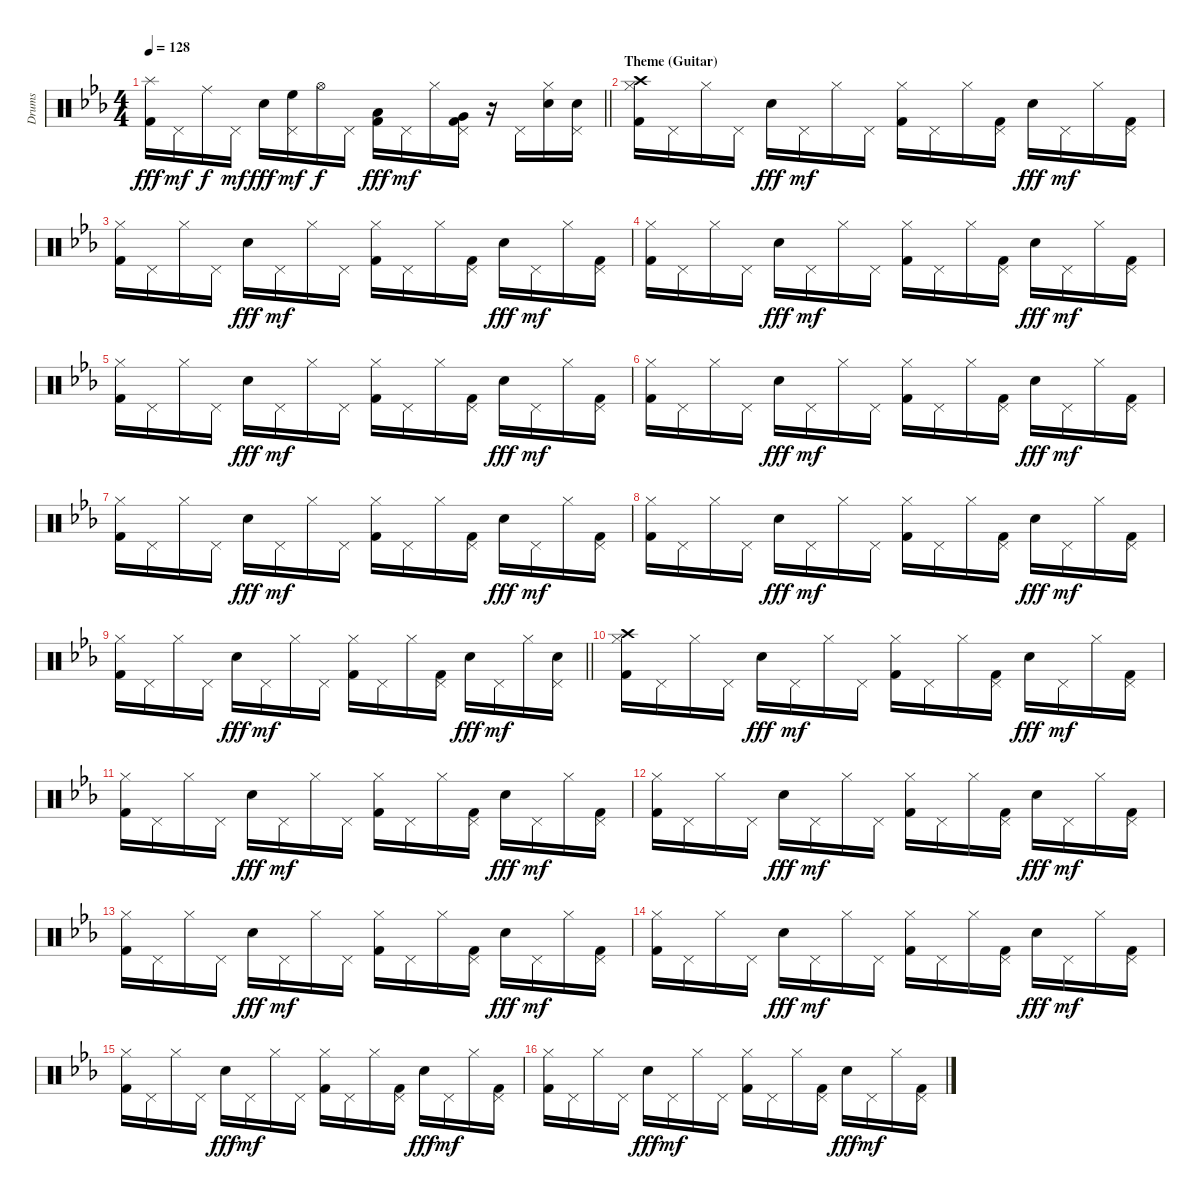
\track ("Drums" "Drums") {instrument percussion}
\staff {score}
\articulation defaults
\ts (4 4)
\tempo 128
\clef neutral
\barLineRight lightlight
\ks cminor
("Kick (hit) 2" "Splash (hit)").16{dy fff} "Pedal Hi-Hat (hit)".16{dy mf} "Ride (middle)".16{dy f} "Pedal Hi-Hat (hit)".16{dy mf} "Electric Snare (hit)".16{dy fff} ("High Floor Tom (hit)" "Pedal Hi-Hat (hit)").16{dy mf} "Hi-Hat (open)".16{dy f} "Pedal Hi-Hat (hit)".16 ("Low Tom (hit)" "Kick (hit) 2").16{dy fff} "Pedal Hi-Hat (hit)".16{dy mf} "Hi-Hat (closed)".16 ("Very Low Tom (hit)" "Kick (hit) 2" "Pedal Hi-Hat (hit)").16 r.16 "Pedal Hi-Hat (hit)".16 ("Electric Snare (hit)" "Hi-Hat (closed)").16 ("Electric Snare (hit)" "Pedal Hi-Hat (hit)").16 |
\section ("" "Theme (Guitar)")
("Crash high (hit)" "Kick (hit) 2" "Hi-Hat (closed)").16 "Pedal Hi-Hat (hit)".16 "Hi-Hat (closed)".16 "Pedal Hi-Hat (hit)".16 "Electric Snare (hit)".16{dy fff} "Pedal Hi-Hat (hit)".16{dy mf} "Hi-Hat (closed)".16 "Pedal Hi-Hat (hit)".16 ("Kick (hit) 2" "Hi-Hat (closed)").16 "Pedal Hi-Hat (hit)".16 "Hi-Hat (closed)".16 ("Kick (hit) 2" "Pedal Hi-Hat (hit)").16 "Electric Snare (hit)".16{dy fff} "Pedal Hi-Hat (hit)".16{dy mf} "Hi-Hat (closed)".16 ("Kick (hit) 2" "Pedal Hi-Hat (hit)").16 |
("Kick (hit) 2" "Hi-Hat (closed)").16 "Pedal Hi-Hat (hit)".16 "Hi-Hat (closed)".16 "Pedal Hi-Hat (hit)".16 "Electric Snare (hit)".16{dy fff} "Pedal Hi-Hat (hit)".16{dy mf} "Hi-Hat (closed)".16 "Pedal Hi-Hat (hit)".16 ("Kick (hit) 2" "Hi-Hat (closed)").16 "Pedal Hi-Hat (hit)".16 "Hi-Hat (closed)".16 ("Kick (hit) 2" "Pedal Hi-Hat (hit)").16 "Electric Snare (hit)".16{dy fff} "Pedal Hi-Hat (hit)".16{dy mf} "Hi-Hat (closed)".16 ("Kick (hit) 2" "Pedal Hi-Hat (hit)").16 |
("Kick (hit) 2" "Hi-Hat (closed)").16 "Pedal Hi-Hat (hit)".16 "Hi-Hat (closed)".16 "Pedal Hi-Hat (hit)".16 "Electric Snare (hit)".16{dy fff} "Pedal Hi-Hat (hit)".16{dy mf} "Hi-Hat (closed)".16 "Pedal Hi-Hat (hit)".16 ("Kick (hit) 2" "Hi-Hat (closed)").16 "Pedal Hi-Hat (hit)".16 "Hi-Hat (closed)".16 ("Kick (hit) 2" "Pedal Hi-Hat (hit)").16 "Electric Snare (hit)".16{dy fff} "Pedal Hi-Hat (hit)".16{dy mf} "Hi-Hat (closed)".16 ("Kick (hit) 2" "Pedal Hi-Hat (hit)").16 |
("Kick (hit) 2" "Hi-Hat (closed)").16 "Pedal Hi-Hat (hit)".16 "Hi-Hat (closed)".16 "Pedal Hi-Hat (hit)".16 "Electric Snare (hit)".16{dy fff} "Pedal Hi-Hat (hit)".16{dy mf} "Hi-Hat (closed)".16 "Pedal Hi-Hat (hit)".16 ("Kick (hit) 2" "Hi-Hat (closed)").16 "Pedal Hi-Hat (hit)".16 "Hi-Hat (closed)".16 ("Kick (hit) 2" "Pedal Hi-Hat (hit)").16 "Electric Snare (hit)".16{dy fff} "Pedal Hi-Hat (hit)".16{dy mf} "Hi-Hat (closed)".16 ("Kick (hit) 2" "Pedal Hi-Hat (hit)").16 |
("Kick (hit) 2" "Hi-Hat (closed)").16 "Pedal Hi-Hat (hit)".16 "Hi-Hat (closed)".16 "Pedal Hi-Hat (hit)".16 "Electric Snare (hit)".16{dy fff} "Pedal Hi-Hat (hit)".16{dy mf} "Hi-Hat (closed)".16 "Pedal Hi-Hat (hit)".16 ("Kick (hit) 2" "Hi-Hat (closed)").16 "Pedal Hi-Hat (hit)".16 "Hi-Hat (closed)".16 ("Kick (hit) 2" "Pedal Hi-Hat (hit)").16 "Electric Snare (hit)".16{dy fff} "Pedal Hi-Hat (hit)".16{dy mf} "Hi-Hat (closed)".16 ("Kick (hit) 2" "Pedal Hi-Hat (hit)").16 |
("Kick (hit) 2" "Hi-Hat (closed)").16 "Pedal Hi-Hat (hit)".16 "Hi-Hat (closed)".16 "Pedal Hi-Hat (hit)".16 "Electric Snare (hit)".16{dy fff} "Pedal Hi-Hat (hit)".16{dy mf} "Hi-Hat (closed)".16 "Pedal Hi-Hat (hit)".16 ("Kick (hit) 2" "Hi-Hat (closed)").16 "Pedal Hi-Hat (hit)".16 "Hi-Hat (closed)".16 ("Kick (hit) 2" "Pedal Hi-Hat (hit)").16 "Electric Snare (hit)".16{dy fff} "Pedal Hi-Hat (hit)".16{dy mf} "Hi-Hat (closed)".16 ("Kick (hit) 2" "Pedal Hi-Hat (hit)").16 |
("Kick (hit) 2" "Hi-Hat (closed)").16 "Pedal Hi-Hat (hit)".16 "Hi-Hat (closed)".16 "Pedal Hi-Hat (hit)".16 "Electric Snare (hit)".16{dy fff} "Pedal Hi-Hat (hit)".16{dy mf} "Hi-Hat (closed)".16 "Pedal Hi-Hat (hit)".16 ("Kick (hit) 2" "Hi-Hat (closed)").16 "Pedal Hi-Hat (hit)".16 "Hi-Hat (closed)".16 ("Kick (hit) 2" "Pedal Hi-Hat (hit)").16 "Electric Snare (hit)".16{dy fff} "Pedal Hi-Hat (hit)".16{dy mf} "Hi-Hat (closed)".16 ("Kick (hit) 2" "Pedal Hi-Hat (hit)").16 |
\barLineRight lightlight
("Kick (hit) 2" "Hi-Hat (closed)").16 "Pedal Hi-Hat (hit)".16 "Hi-Hat (closed)".16 "Pedal Hi-Hat (hit)".16 "Electric Snare (hit)".16{dy fff} "Pedal Hi-Hat (hit)".16{dy mf} "Hi-Hat (closed)".16 "Pedal Hi-Hat (hit)".16 ("Kick (hit) 2" "Hi-Hat (closed)").16 "Pedal Hi-Hat (hit)".16 "Hi-Hat (closed)".16 ("Kick (hit) 2" "Pedal Hi-Hat (hit)").16 "Electric Snare (hit)".16{dy fff} "Pedal Hi-Hat (hit)".16{dy mf} "Hi-Hat (closed)".16 ("Electric Snare (hit)" "Pedal Hi-Hat (hit)").16 |
("Crash high (hit)" "Kick (hit) 2" "Hi-Hat (closed)").16 "Pedal Hi-Hat (hit)".16 "Hi-Hat (closed)".16 "Pedal Hi-Hat (hit)".16 "Electric Snare (hit)".16{dy fff} "Pedal Hi-Hat (hit)".16{dy mf} "Hi-Hat (closed)".16 "Pedal Hi-Hat (hit)".16 ("Kick (hit) 2" "Hi-Hat (closed)").16 "Pedal Hi-Hat (hit)".16 "Hi-Hat (closed)".16 ("Kick (hit) 2" "Pedal Hi-Hat (hit)").16 "Electric Snare (hit)".16{dy fff} "Pedal Hi-Hat (hit)".16{dy mf} "Hi-Hat (closed)".16 ("Kick (hit) 2" "Pedal Hi-Hat (hit)").16 |
("Kick (hit) 2" "Hi-Hat (closed)").16 "Pedal Hi-Hat (hit)".16 "Hi-Hat (closed)".16 "Pedal Hi-Hat (hit)".16 "Electric Snare (hit)".16{dy fff} "Pedal Hi-Hat (hit)".16{dy mf} "Hi-Hat (closed)".16 "Pedal Hi-Hat (hit)".16 ("Kick (hit) 2" "Hi-Hat (closed)").16 "Pedal Hi-Hat (hit)".16 "Hi-Hat (closed)".16 ("Kick (hit) 2" "Pedal Hi-Hat (hit)").16 "Electric Snare (hit)".16{dy fff} "Pedal Hi-Hat (hit)".16{dy mf} "Hi-Hat (closed)".16 ("Kick (hit) 2" "Pedal Hi-Hat (hit)").16 |
("Kick (hit) 2" "Hi-Hat (closed)").16 "Pedal Hi-Hat (hit)".16 "Hi-Hat (closed)".16 "Pedal Hi-Hat (hit)".16 "Electric Snare (hit)".16{dy fff} "Pedal Hi-Hat (hit)".16{dy mf} "Hi-Hat (closed)".16 "Pedal Hi-Hat (hit)".16 ("Kick (hit) 2" "Hi-Hat (closed)").16 "Pedal Hi-Hat (hit)".16 "Hi-Hat (closed)".16 ("Kick (hit) 2" "Pedal Hi-Hat (hit)").16 "Electric Snare (hit)".16{dy fff} "Pedal Hi-Hat (hit)".16{dy mf} "Hi-Hat (closed)".16 ("Kick (hit) 2" "Pedal Hi-Hat (hit)").16 |
("Kick (hit) 2" "Hi-Hat (closed)").16 "Pedal Hi-Hat (hit)".16 "Hi-Hat (closed)".16 "Pedal Hi-Hat (hit)".16 "Electric Snare (hit)".16{dy fff} "Pedal Hi-Hat (hit)".16{dy mf} "Hi-Hat (closed)".16 "Pedal Hi-Hat (hit)".16 ("Kick (hit) 2" "Hi-Hat (closed)").16 "Pedal Hi-Hat (hit)".16 "Hi-Hat (closed)".16 ("Kick (hit) 2" "Pedal Hi-Hat (hit)").16 "Electric Snare (hit)".16{dy fff} "Pedal Hi-Hat (hit)".16{dy mf} "Hi-Hat (closed)".16 ("Kick (hit) 2" "Pedal Hi-Hat (hit)").16 |
("Kick (hit) 2" "Hi-Hat (closed)").16 "Pedal Hi-Hat (hit)".16 "Hi-Hat (closed)".16 "Pedal Hi-Hat (hit)".16 "Electric Snare (hit)".16{dy fff} "Pedal Hi-Hat (hit)".16{dy mf} "Hi-Hat (closed)".16 "Pedal Hi-Hat (hit)".16 ("Kick (hit) 2" "Hi-Hat (closed)").16 "Pedal Hi-Hat (hit)".16 "Hi-Hat (closed)".16 ("Kick (hit) 2" "Pedal Hi-Hat (hit)").16 "Electric Snare (hit)".16{dy fff} "Pedal Hi-Hat (hit)".16{dy mf} "Hi-Hat (closed)".16 ("Kick (hit) 2" "Pedal Hi-Hat (hit)").16 |
("Kick (hit) 2" "Hi-Hat (closed)").16 "Pedal Hi-Hat (hit)".16 "Hi-Hat (closed)".16 "Pedal Hi-Hat (hit)".16 "Electric Snare (hit)".16{dy fff} "Pedal Hi-Hat (hit)".16{dy mf} "Hi-Hat (closed)".16 "Pedal Hi-Hat (hit)".16 ("Kick (hit) 2" "Hi-Hat (closed)").16 "Pedal Hi-Hat (hit)".16 "Hi-Hat (closed)".16 ("Kick (hit) 2" "Pedal Hi-Hat (hit)").16 "Electric Snare (hit)".16{dy fff} "Pedal Hi-Hat (hit)".16{dy mf} "Hi-Hat (closed)".16 ("Kick (hit) 2" "Pedal Hi-Hat (hit)").16 |
("Kick (hit) 2" "Hi-Hat (closed)").16 "Pedal Hi-Hat (hit)".16 "Hi-Hat (closed)".16 "Pedal Hi-Hat (hit)".16 "Electric Snare (hit)".16{dy fff} "Pedal Hi-Hat (hit)".16{dy mf} "Hi-Hat (closed)".16 "Pedal Hi-Hat (hit)".16 ("Kick (hit) 2" "Hi-Hat (closed)").16 "Pedal Hi-Hat (hit)".16 "Hi-Hat (closed)".16 ("Kick (hit) 2" "Pedal Hi-Hat (hit)").16 "Electric Snare (hit)".16{dy fff} "Pedal Hi-Hat (hit)".16{dy mf} "Hi-Hat (closed)".16 ("Kick (hit) 2" "Pedal Hi-Hat (hit)").16
